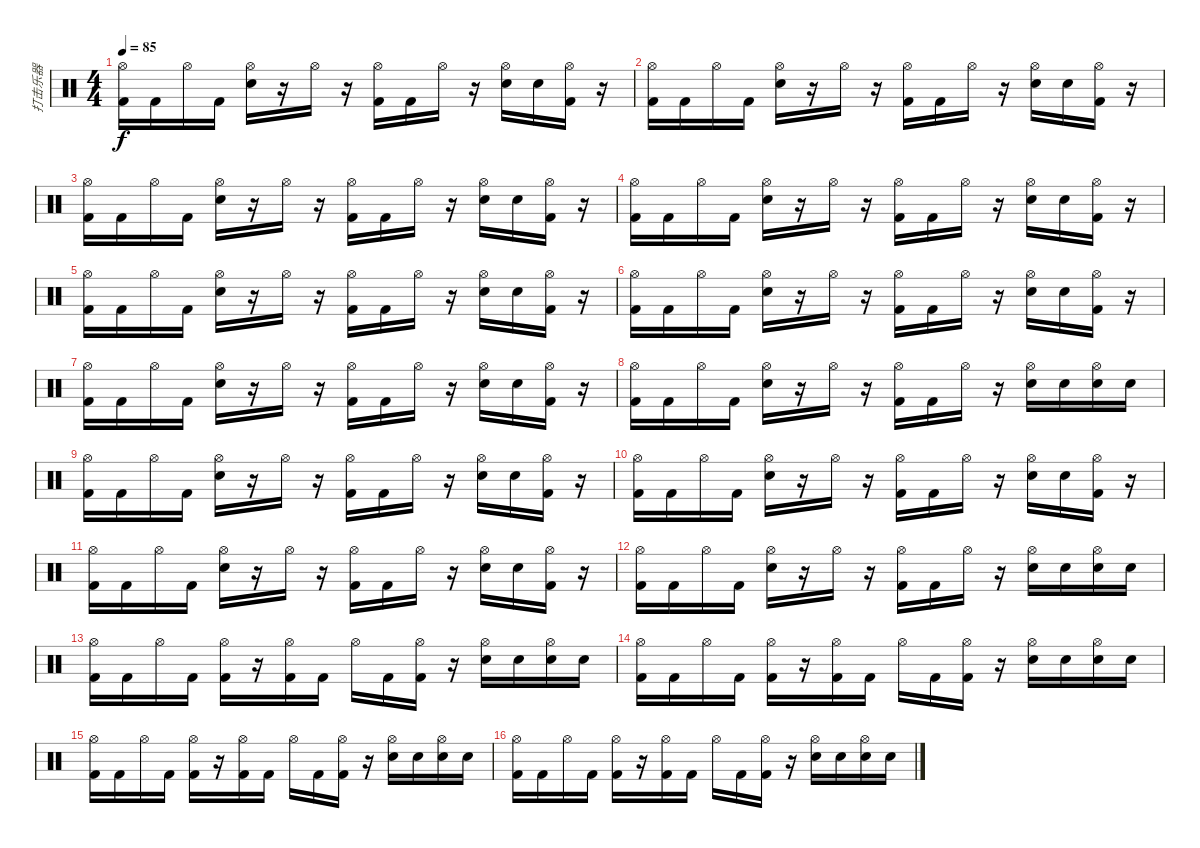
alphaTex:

\track ("打击乐器" "打击乐器") {instrument percussion}
\staff {score}
\articulation defaults
\ts (4 4)
\tempo 85
\clef neutral
\ks c
("Hi-Hat (open)" "Kick (hit) 2").16{dy f} "Kick (hit) 2".16 "Hi-Hat (open)".16 "Kick (hit) 2".16 ("Hi-Hat (open)" "Snare (hit) 2").16 r.16 "Hi-Hat (open)".16 r.16 ("Hi-Hat (open)" "Kick (hit) 2").16 "Kick (hit) 2".16 "Hi-Hat (open)".16 r.16 ("Hi-Hat (open)" "Snare (hit) 2").16 "Snare (hit) 2".16 ("Hi-Hat (open)" "Kick (hit) 2").16 r.16 |
("Hi-Hat (open)" "Kick (hit) 2").16 "Kick (hit) 2".16 "Hi-Hat (open)".16 "Kick (hit) 2".16 ("Hi-Hat (open)" "Snare (hit) 2").16 r.16 "Hi-Hat (open)".16 r.16 ("Hi-Hat (open)" "Kick (hit) 2").16 "Kick (hit) 2".16 "Hi-Hat (open)".16 r.16 ("Hi-Hat (open)" "Snare (hit) 2").16 "Snare (hit) 2".16 ("Hi-Hat (open)" "Kick (hit) 2").16 r.16 |
("Hi-Hat (open)" "Kick (hit) 2").16 "Kick (hit) 2".16 "Hi-Hat (open)".16 "Kick (hit) 2".16 ("Hi-Hat (open)" "Snare (hit) 2").16 r.16 "Hi-Hat (open)".16 r.16 ("Hi-Hat (open)" "Kick (hit) 2").16 "Kick (hit) 2".16 "Hi-Hat (open)".16 r.16 ("Hi-Hat (open)" "Snare (hit) 2").16 "Snare (hit) 2".16 ("Hi-Hat (open)" "Kick (hit) 2").16 r.16 |
("Hi-Hat (open)" "Kick (hit) 2").16 "Kick (hit) 2".16 "Hi-Hat (open)".16 "Kick (hit) 2".16 ("Hi-Hat (open)" "Snare (hit) 2").16 r.16 "Hi-Hat (open)".16 r.16 ("Hi-Hat (open)" "Kick (hit) 2").16 "Kick (hit) 2".16 "Hi-Hat (open)".16 r.16 ("Hi-Hat (open)" "Snare (hit) 2").16 "Snare (hit) 2".16 ("Hi-Hat (open)" "Kick (hit) 2").16 r.16 |
("Hi-Hat (open)" "Kick (hit) 2").16 "Kick (hit) 2".16 "Hi-Hat (open)".16 "Kick (hit) 2".16 ("Hi-Hat (open)" "Snare (hit) 2").16 r.16 "Hi-Hat (open)".16 r.16 ("Hi-Hat (open)" "Kick (hit) 2").16 "Kick (hit) 2".16 "Hi-Hat (open)".16 r.16 ("Hi-Hat (open)" "Snare (hit) 2").16 "Snare (hit) 2".16 ("Hi-Hat (open)" "Kick (hit) 2").16 r.16 |
("Hi-Hat (open)" "Kick (hit) 2").16 "Kick (hit) 2".16 "Hi-Hat (open)".16 "Kick (hit) 2".16 ("Hi-Hat (open)" "Snare (hit) 2").16 r.16 "Hi-Hat (open)".16 r.16 ("Hi-Hat (open)" "Kick (hit) 2").16 "Kick (hit) 2".16 "Hi-Hat (open)".16 r.16 ("Hi-Hat (open)" "Snare (hit) 2").16 "Snare (hit) 2".16 ("Hi-Hat (open)" "Kick (hit) 2").16 r.16 |
("Hi-Hat (open)" "Kick (hit) 2").16 "Kick (hit) 2".16 "Hi-Hat (open)".16 "Kick (hit) 2".16 ("Hi-Hat (open)" "Snare (hit) 2").16 r.16 "Hi-Hat (open)".16 r.16 ("Hi-Hat (open)" "Kick (hit) 2").16 "Kick (hit) 2".16 "Hi-Hat (open)".16 r.16 ("Hi-Hat (open)" "Snare (hit) 2").16 "Snare (hit) 2".16 ("Hi-Hat (open)" "Kick (hit) 2").16 r.16 |
("Hi-Hat (open)" "Kick (hit) 2").16 "Kick (hit) 2".16 "Hi-Hat (open)".16 "Kick (hit) 2".16 ("Hi-Hat (open)" "Snare (hit) 2").16 r.16 "Hi-Hat (open)".16 r.16 ("Hi-Hat (open)" "Kick (hit) 2").16 "Kick (hit) 2".16 "Hi-Hat (open)".16 r.16 ("Hi-Hat (open)" "Snare (hit) 2").16 "Snare (hit) 2".16 ("Hi-Hat (open)" "Snare (hit) 2").16 "Snare (hit) 2".16 |
("Hi-Hat (open)" "Kick (hit) 2").16 "Kick (hit) 2".16 "Hi-Hat (open)".16 "Kick (hit) 2".16 ("Hi-Hat (open)" "Snare (hit) 2").16 r.16 "Hi-Hat (open)".16 r.16 ("Hi-Hat (open)" "Kick (hit) 2").16 "Kick (hit) 2".16 "Hi-Hat (open)".16 r.16 ("Hi-Hat (open)" "Snare (hit) 2").16 "Snare (hit) 2".16 ("Hi-Hat (open)" "Kick (hit) 2").16 r.16 |
("Hi-Hat (open)" "Kick (hit) 2").16 "Kick (hit) 2".16 "Hi-Hat (open)".16 "Kick (hit) 2".16 ("Hi-Hat (open)" "Snare (hit) 2").16 r.16 "Hi-Hat (open)".16 r.16 ("Hi-Hat (open)" "Kick (hit) 2").16 "Kick (hit) 2".16 "Hi-Hat (open)".16 r.16 ("Hi-Hat (open)" "Snare (hit) 2").16 "Snare (hit) 2".16 ("Hi-Hat (open)" "Kick (hit) 2").16 r.16 |
("Hi-Hat (open)" "Kick (hit) 2").16 "Kick (hit) 2".16 "Hi-Hat (open)".16 "Kick (hit) 2".16 ("Hi-Hat (open)" "Snare (hit) 2").16 r.16 "Hi-Hat (open)".16 r.16 ("Hi-Hat (open)" "Kick (hit) 2").16 "Kick (hit) 2".16 "Hi-Hat (open)".16 r.16 ("Hi-Hat (open)" "Snare (hit) 2").16 "Snare (hit) 2".16 ("Hi-Hat (open)" "Kick (hit) 2").16 r.16 |
("Hi-Hat (open)" "Kick (hit) 2").16 "Kick (hit) 2".16 "Hi-Hat (open)".16 "Kick (hit) 2".16 ("Hi-Hat (open)" "Snare (hit) 2").16 r.16 "Hi-Hat (open)".16 r.16 ("Hi-Hat (open)" "Kick (hit) 2").16 "Kick (hit) 2".16 "Hi-Hat (open)".16 r.16 ("Hi-Hat (open)" "Snare (hit) 2").16 "Snare (hit) 2".16 ("Hi-Hat (open)" "Snare (hit) 2").16 "Snare (hit) 2".16 |
("Hi-Hat (open)" "Kick (hit) 2").16 "Kick (hit) 2".16 "Hi-Hat (open)".16 "Kick (hit) 2".16 ("Hi-Hat (open)" "Kick (hit) 2").16 r.16 ("Hi-Hat (open)" "Kick (hit) 2").16 "Kick (hit) 2".16 "Hi-Hat (open)".16 "Kick (hit) 2".16 ("Hi-Hat (open)" "Kick (hit) 2").16 r.16 ("Hi-Hat (open)" "Snare (hit) 2").16 "Snare (hit) 2".16 ("Hi-Hat (open)" "Snare (hit) 2").16 "Snare (hit) 2".16 |
("Hi-Hat (open)" "Kick (hit) 2").16 "Kick (hit) 2".16 "Hi-Hat (open)".16 "Kick (hit) 2".16 ("Hi-Hat (open)" "Kick (hit) 2").16 r.16 ("Hi-Hat (open)" "Kick (hit) 2").16 "Kick (hit) 2".16 "Hi-Hat (open)".16 "Kick (hit) 2".16 ("Hi-Hat (open)" "Kick (hit) 2").16 r.16 ("Hi-Hat (open)" "Snare (hit) 2").16 "Snare (hit) 2".16 ("Hi-Hat (open)" "Snare (hit) 2").16 "Snare (hit) 2".16 |
("Hi-Hat (open)" "Kick (hit) 2").16 "Kick (hit) 2".16 "Hi-Hat (open)".16 "Kick (hit) 2".16 ("Hi-Hat (open)" "Kick (hit) 2").16 r.16 ("Hi-Hat (open)" "Kick (hit) 2").16 "Kick (hit) 2".16 "Hi-Hat (open)".16 "Kick (hit) 2".16 ("Hi-Hat (open)" "Kick (hit) 2").16 r.16 ("Hi-Hat (open)" "Snare (hit) 2").16 "Snare (hit) 2".16 ("Hi-Hat (open)" "Snare (hit) 2").16 "Snare (hit) 2".16 |
("Hi-Hat (open)" "Kick (hit) 2").16 "Kick (hit) 2".16 "Hi-Hat (open)".16 "Kick (hit) 2".16 ("Hi-Hat (open)" "Kick (hit) 2").16 r.16 ("Hi-Hat (open)" "Kick (hit) 2").16 "Kick (hit) 2".16 "Hi-Hat (open)".16 "Kick (hit) 2".16 ("Hi-Hat (open)" "Kick (hit) 2").16 r.16 ("Hi-Hat (open)" "Snare (hit) 2").16 "Snare (hit) 2".16 ("Hi-Hat (open)" "Snare (hit) 2").16 "Snare (hit) 2".16
